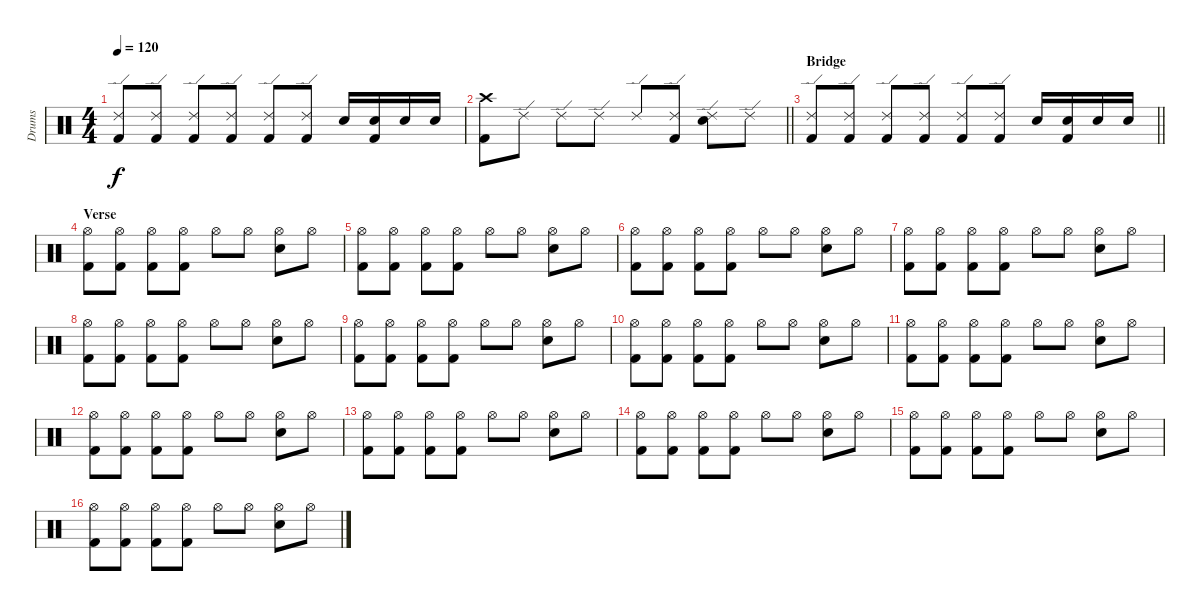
\track ("Drums" "Drums") {instrument percussion}
\staff {score}
\articulation defaults
\ts (4 4)
\tempo 120
\clef neutral
\ks c
("Ride (edge) 2" "Kick (hit) 2").8{dy f} ("Ride (edge) 2" "Kick (hit) 2").8 ("Ride (edge) 2" "Kick (hit) 2").8 ("Ride (edge) 2" "Kick (hit) 2").8 ("Ride (edge) 2" "Kick (hit) 2").8 ("Ride (edge) 2" "Kick (hit) 2").8 "Snare (hit) 2".16 ("Snare (hit) 2" "Kick (hit) 2").16 "Snare (hit) 2".16 "Snare (hit) 2".16 |
\barLineRight lightlight
("Crash high (hit)" "Kick (hit) 2").8 "Ride (edge) 2".8 "Ride (edge) 2".8 "Ride (edge) 2".8 "Ride (edge) 2".8 ("Ride (edge) 2" "Kick (hit) 2").8 ("Ride (edge) 2" "Snare (hit) 2").8 "Ride (edge) 2".8 |
\section ("" "Bridge")
\barLineRight lightlight
("Ride (edge) 2" "Kick (hit) 2").8 ("Ride (edge) 2" "Kick (hit) 2").8 ("Ride (edge) 2" "Kick (hit) 2").8 ("Ride (edge) 2" "Kick (hit) 2").8 ("Ride (edge) 2" "Kick (hit) 2").8 ("Ride (edge) 2" "Kick (hit) 2").8 "Snare (hit) 2".16 ("Snare (hit) 2" "Kick (hit) 2").16 "Snare (hit) 2".16 "Snare (hit) 2".16 |
\section ("" "Verse")
("Hi-Hat (open)" "Kick (hit) 2").8 ("Hi-Hat (open)" "Kick (hit) 2").8 ("Hi-Hat (open)" "Kick (hit) 2").8 ("Hi-Hat (open)" "Kick (hit) 2").8 "Hi-Hat (open)".8 "Hi-Hat (open)".8 ("Hi-Hat (open)" "Snare (hit) 2").8 "Hi-Hat (open)".8 |
("Hi-Hat (open)" "Kick (hit) 2").8 ("Hi-Hat (open)" "Kick (hit) 2").8 ("Hi-Hat (open)" "Kick (hit) 2").8 ("Hi-Hat (open)" "Kick (hit) 2").8 "Hi-Hat (open)".8 "Hi-Hat (open)".8 ("Hi-Hat (open)" "Snare (hit) 2").8 "Hi-Hat (open)".8 |
("Hi-Hat (open)" "Kick (hit) 2").8 ("Hi-Hat (open)" "Kick (hit) 2").8 ("Hi-Hat (open)" "Kick (hit) 2").8 ("Hi-Hat (open)" "Kick (hit) 2").8 "Hi-Hat (open)".8 "Hi-Hat (open)".8 ("Hi-Hat (open)" "Snare (hit) 2").8 "Hi-Hat (open)".8 |
("Hi-Hat (open)" "Kick (hit) 2").8 ("Hi-Hat (open)" "Kick (hit) 2").8 ("Hi-Hat (open)" "Kick (hit) 2").8 ("Hi-Hat (open)" "Kick (hit) 2").8 "Hi-Hat (open)".8 "Hi-Hat (open)".8 ("Hi-Hat (open)" "Snare (hit) 2").8 "Hi-Hat (open)".8 |
("Hi-Hat (open)" "Kick (hit) 2").8 ("Hi-Hat (open)" "Kick (hit) 2").8 ("Hi-Hat (open)" "Kick (hit) 2").8 ("Hi-Hat (open)" "Kick (hit) 2").8 "Hi-Hat (open)".8 "Hi-Hat (open)".8 ("Hi-Hat (open)" "Snare (hit) 2").8 "Hi-Hat (open)".8 |
("Hi-Hat (open)" "Kick (hit) 2").8 ("Hi-Hat (open)" "Kick (hit) 2").8 ("Hi-Hat (open)" "Kick (hit) 2").8 ("Hi-Hat (open)" "Kick (hit) 2").8 "Hi-Hat (open)".8 "Hi-Hat (open)".8 ("Hi-Hat (open)" "Snare (hit) 2").8 "Hi-Hat (open)".8 |
("Hi-Hat (open)" "Kick (hit) 2").8 ("Hi-Hat (open)" "Kick (hit) 2").8 ("Hi-Hat (open)" "Kick (hit) 2").8 ("Hi-Hat (open)" "Kick (hit) 2").8 "Hi-Hat (open)".8 "Hi-Hat (open)".8 ("Hi-Hat (open)" "Snare (hit) 2").8 "Hi-Hat (open)".8 |
("Hi-Hat (open)" "Kick (hit) 2").8 ("Hi-Hat (open)" "Kick (hit) 2").8 ("Hi-Hat (open)" "Kick (hit) 2").8 ("Hi-Hat (open)" "Kick (hit) 2").8 "Hi-Hat (open)".8 "Hi-Hat (open)".8 ("Hi-Hat (open)" "Snare (hit) 2").8 "Hi-Hat (open)".8 |
("Hi-Hat (open)" "Kick (hit) 2").8 ("Hi-Hat (open)" "Kick (hit) 2").8 ("Hi-Hat (open)" "Kick (hit) 2").8 ("Hi-Hat (open)" "Kick (hit) 2").8 "Hi-Hat (open)".8 "Hi-Hat (open)".8 ("Hi-Hat (open)" "Snare (hit) 2").8 "Hi-Hat (open)".8 |
("Hi-Hat (open)" "Kick (hit) 2").8 ("Hi-Hat (open)" "Kick (hit) 2").8 ("Hi-Hat (open)" "Kick (hit) 2").8 ("Hi-Hat (open)" "Kick (hit) 2").8 "Hi-Hat (open)".8 "Hi-Hat (open)".8 ("Hi-Hat (open)" "Snare (hit) 2").8 "Hi-Hat (open)".8 |
("Hi-Hat (open)" "Kick (hit) 2").8 ("Hi-Hat (open)" "Kick (hit) 2").8 ("Hi-Hat (open)" "Kick (hit) 2").8 ("Hi-Hat (open)" "Kick (hit) 2").8 "Hi-Hat (open)".8 "Hi-Hat (open)".8 ("Hi-Hat (open)" "Snare (hit) 2").8 "Hi-Hat (open)".8 |
("Hi-Hat (open)" "Kick (hit) 2").8 ("Hi-Hat (open)" "Kick (hit) 2").8 ("Hi-Hat (open)" "Kick (hit) 2").8 ("Hi-Hat (open)" "Kick (hit) 2").8 "Hi-Hat (open)".8 "Hi-Hat (open)".8 ("Hi-Hat (open)" "Snare (hit) 2").8 "Hi-Hat (open)".8 |
("Hi-Hat (open)" "Kick (hit) 2").8 ("Hi-Hat (open)" "Kick (hit) 2").8 ("Hi-Hat (open)" "Kick (hit) 2").8 ("Hi-Hat (open)" "Kick (hit) 2").8 "Hi-Hat (open)".8 "Hi-Hat (open)".8 ("Hi-Hat (open)" "Snare (hit) 2").8 "Hi-Hat (open)".8
